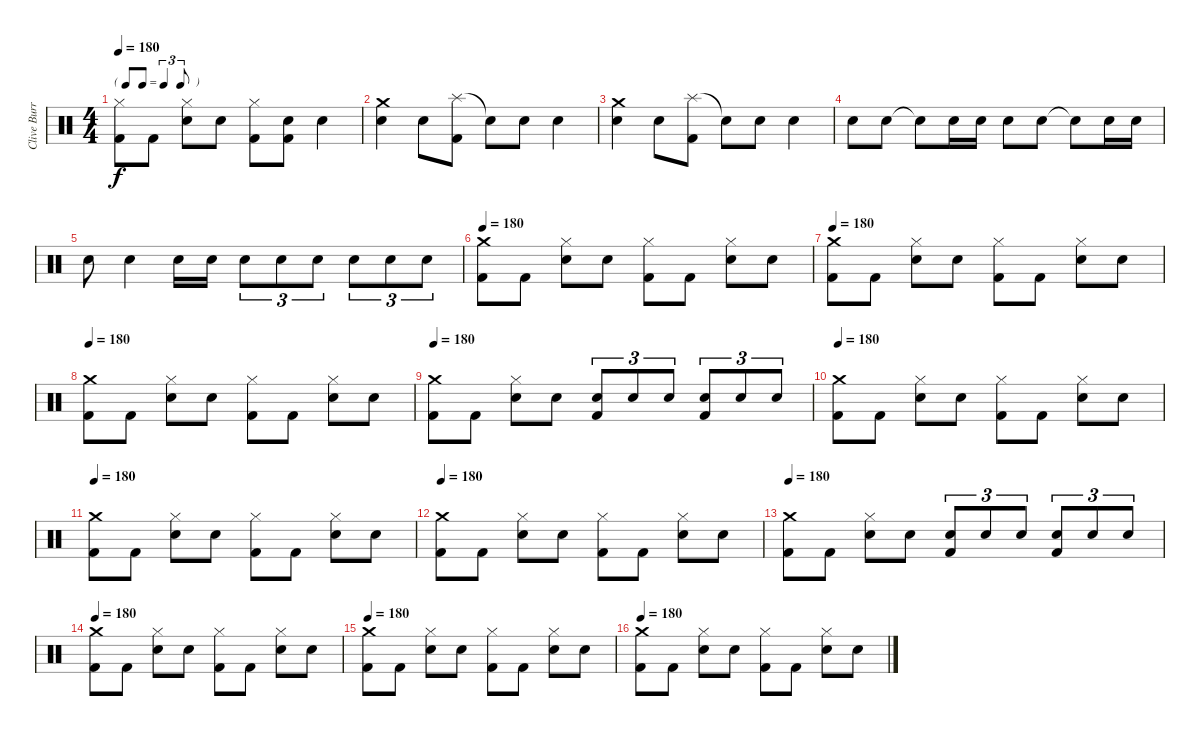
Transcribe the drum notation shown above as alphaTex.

\track ("Clive Burr" "Clive Burr") {instrument percussion}
\staff {score}
\articulation defaults
\ts (4 4)
\tf triplet8th
\tempo 180
\clef neutral
\ks c
("Hi-Hat (closed)" "Kick (hit) 2").8{dy f} "Kick (hit) 2".8 ("Hi-Hat (closed)" "Electric Snare (hit)").8 "Electric Snare (hit)".8 ("Hi-Hat (closed)" "Kick (hit) 2").8 ("Electric Snare (hit)" "Kick (hit) 2").8 "Electric Snare (hit)".4 |
("Crash medium (hit)" "Electric Snare (hit)").4 "Electric Snare (hit)".8 ("Splash (hit)" "Kick (hit) 2").8 "Snare (hit)"{t}.8 "Electric Snare (hit)".8 "Electric Snare (hit)".4 |
("Crash medium (hit)" "Electric Snare (hit)").4 "Electric Snare (hit)".8 ("Splash (hit)" "Kick (hit) 2").8 "Snare (hit)"{t}.8 "Electric Snare (hit)".8 "Electric Snare (hit)".4 |
"Electric Snare (hit)".8 "Electric Snare (hit)".8 "Snare (hit)"{t}.8 "Electric Snare (hit)".16 "Electric Snare (hit)".16 "Electric Snare (hit)".8 "Electric Snare (hit)".8 "Snare (hit)"{t}.8 "Electric Snare (hit)".16 "Electric Snare (hit)".16 |
"Electric Snare (hit)".8 "Electric Snare (hit)".4 "Electric Snare (hit)".16 "Electric Snare (hit)".16 "Electric Snare (hit)".8{tu (3 2)} "Electric Snare (hit)".8{tu (3 2)} "Electric Snare (hit)".8{tu (3 2)} "Electric Snare (hit)".8{tu (3 2)} "Electric Snare (hit)".8{tu (3 2)} "Electric Snare (hit)".8{tu (3 2)} |
\tempo 180
("Crash medium (hit)" "Kick (hit) 2").8 "Kick (hit) 2".8 ("Hi-Hat (closed)" "Electric Snare (hit)").8 "Electric Snare (hit)".8 ("Hi-Hat (closed)" "Kick (hit) 2").8 "Kick (hit) 2".8 ("Hi-Hat (closed)" "Electric Snare (hit)").8 "Electric Snare (hit)".8 |
\tempo 180
("Crash medium (hit)" "Kick (hit) 2").8 "Kick (hit) 2".8 ("Hi-Hat (closed)" "Electric Snare (hit)").8 "Electric Snare (hit)".8 ("Hi-Hat (closed)" "Kick (hit) 2").8 "Kick (hit) 2".8 ("Hi-Hat (closed)" "Electric Snare (hit)").8 "Electric Snare (hit)".8 |
\tempo 180
("Crash medium (hit)" "Kick (hit) 2").8 "Kick (hit) 2".8 ("Hi-Hat (closed)" "Electric Snare (hit)").8 "Electric Snare (hit)".8 ("Hi-Hat (closed)" "Kick (hit) 2").8 "Kick (hit) 2".8 ("Hi-Hat (closed)" "Electric Snare (hit)").8 "Electric Snare (hit)".8 |
\tempo 180
("Crash medium (hit)" "Kick (hit) 2").8 "Kick (hit) 2".8 ("Hi-Hat (closed)" "Electric Snare (hit)").8 "Electric Snare (hit)".8 ("Electric Snare (hit)" "Kick (hit) 2").8{tu (3 2)} "Electric Snare (hit)".8{tu (3 2)} "Electric Snare (hit)".8{tu (3 2)} ("Electric Snare (hit)" "Kick (hit) 2").8{tu (3 2)} "Electric Snare (hit)".8{tu (3 2)} "Electric Snare (hit)".8{tu (3 2)} |
\tempo 180
("Crash medium (hit)" "Kick (hit) 2").8 "Kick (hit) 2".8 ("Hi-Hat (closed)" "Electric Snare (hit)").8 "Electric Snare (hit)".8 ("Hi-Hat (closed)" "Kick (hit) 2").8 "Kick (hit) 2".8 ("Hi-Hat (closed)" "Electric Snare (hit)").8 "Electric Snare (hit)".8 |
\tempo 180
("Crash medium (hit)" "Kick (hit) 2").8 "Kick (hit) 2".8 ("Hi-Hat (closed)" "Electric Snare (hit)").8 "Electric Snare (hit)".8 ("Hi-Hat (closed)" "Kick (hit) 2").8 "Kick (hit) 2".8 ("Hi-Hat (closed)" "Electric Snare (hit)").8 "Electric Snare (hit)".8 |
\tempo 180
("Crash medium (hit)" "Kick (hit) 2").8 "Kick (hit) 2".8 ("Hi-Hat (closed)" "Electric Snare (hit)").8 "Electric Snare (hit)".8 ("Hi-Hat (closed)" "Kick (hit) 2").8 "Kick (hit) 2".8 ("Hi-Hat (closed)" "Electric Snare (hit)").8 "Electric Snare (hit)".8 |
\tempo 180
("Crash medium (hit)" "Kick (hit) 2").8 "Kick (hit) 2".8 ("Hi-Hat (closed)" "Electric Snare (hit)").8 "Electric Snare (hit)".8 ("Electric Snare (hit)" "Kick (hit) 2").8{tu (3 2)} "Electric Snare (hit)".8{tu (3 2)} "Electric Snare (hit)".8{tu (3 2)} ("Electric Snare (hit)" "Kick (hit) 2").8{tu (3 2)} "Electric Snare (hit)".8{tu (3 2)} "Electric Snare (hit)".8{tu (3 2)} |
\tempo 180
("Crash medium (hit)" "Kick (hit) 2").8 "Kick (hit) 2".8 ("Hi-Hat (closed)" "Electric Snare (hit)").8 "Electric Snare (hit)".8 ("Hi-Hat (closed)" "Kick (hit) 2").8 "Kick (hit) 2".8 ("Hi-Hat (closed)" "Electric Snare (hit)").8 "Electric Snare (hit)".8 |
\tempo 180
("Crash medium (hit)" "Kick (hit) 2").8 "Kick (hit) 2".8 ("Hi-Hat (closed)" "Electric Snare (hit)").8 "Electric Snare (hit)".8 ("Hi-Hat (closed)" "Kick (hit) 2").8 "Kick (hit) 2".8 ("Hi-Hat (closed)" "Electric Snare (hit)").8 "Electric Snare (hit)".8 |
\tempo 180
("Crash medium (hit)" "Kick (hit) 2").8 "Kick (hit) 2".8 ("Hi-Hat (closed)" "Electric Snare (hit)").8 "Electric Snare (hit)".8 ("Hi-Hat (closed)" "Kick (hit) 2").8 "Kick (hit) 2".8 ("Hi-Hat (closed)" "Electric Snare (hit)").8 "Electric Snare (hit)".8
